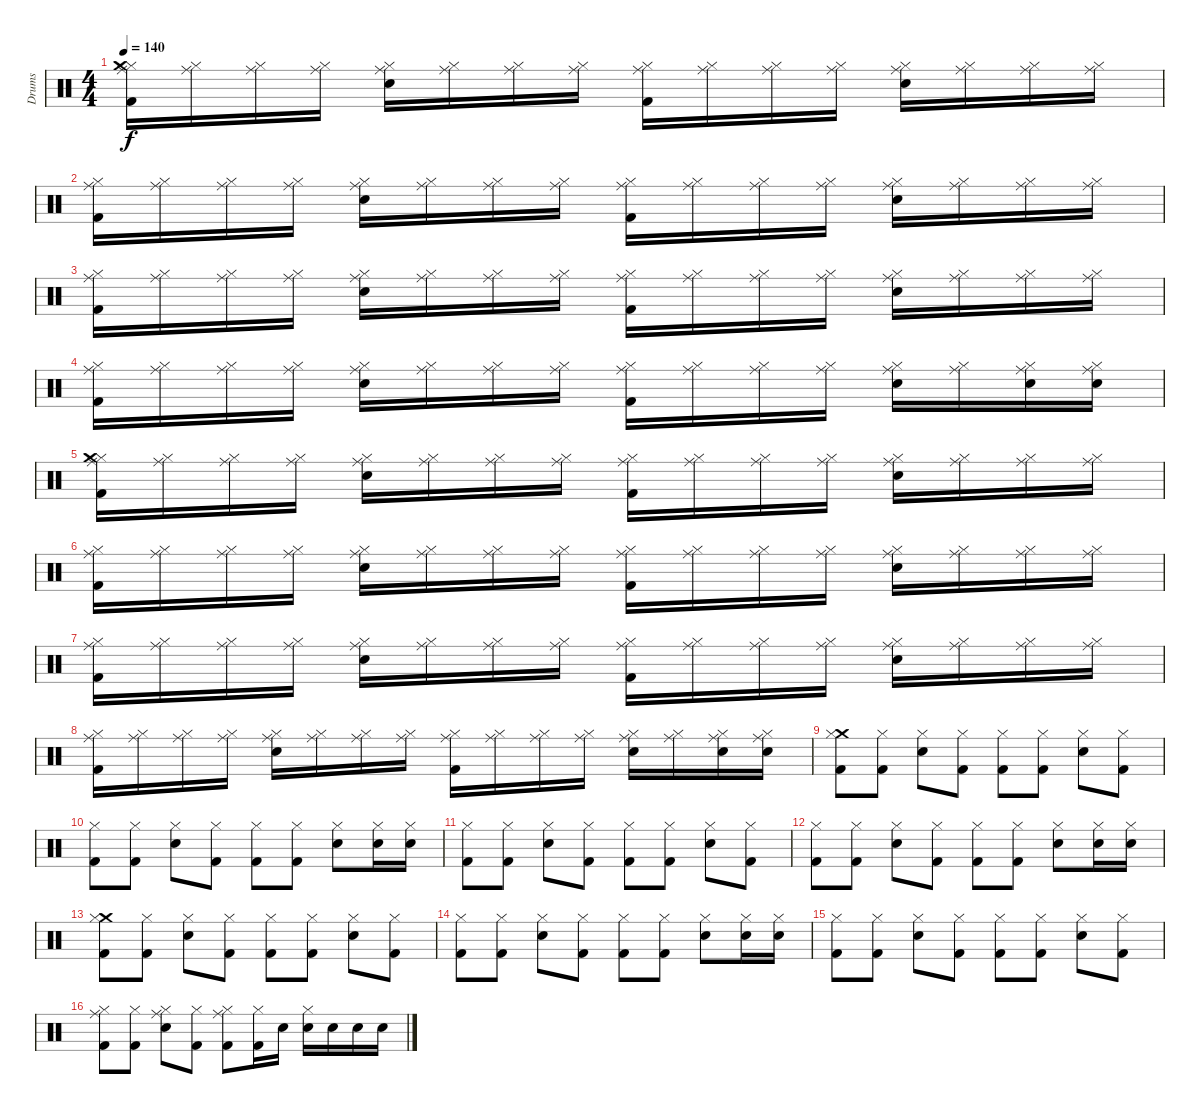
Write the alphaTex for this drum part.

\track ("Drums" "Drums") {instrument percussion}
\staff {score}
\articulation defaults
\ts (4 4)
\tempo 140
\clef neutral
\ks c
("Hi-Hat (closed)" "Crash medium (hit)" "Ride (middle)" "Kick (hit) 2").16{dy f} ("Hi-Hat (closed)" "Ride (middle)").16 ("Hi-Hat (closed)" "Ride (middle)").16 ("Hi-Hat (closed)" "Ride (middle)").16 ("Hi-Hat (closed)" "Ride (middle)" "Snare (hit) 2").16 ("Hi-Hat (closed)" "Ride (middle)").16 ("Hi-Hat (closed)" "Ride (middle)").16 ("Hi-Hat (closed)" "Ride (middle)").16 ("Hi-Hat (closed)" "Ride (middle)" "Kick (hit) 2").16 ("Hi-Hat (closed)" "Ride (middle)").16 ("Hi-Hat (closed)" "Ride (middle)").16 ("Hi-Hat (closed)" "Ride (middle)").16 ("Hi-Hat (closed)" "Ride (middle)" "Snare (hit) 2").16 ("Hi-Hat (closed)" "Ride (middle)").16 ("Hi-Hat (closed)" "Ride (middle)").16 ("Hi-Hat (closed)" "Ride (middle)").16 |
("Hi-Hat (closed)" "Ride (middle)" "Kick (hit) 2").16 ("Hi-Hat (closed)" "Ride (middle)").16 ("Hi-Hat (closed)" "Ride (middle)").16 ("Hi-Hat (closed)" "Ride (middle)").16 ("Hi-Hat (closed)" "Ride (middle)" "Snare (hit) 2").16 ("Hi-Hat (closed)" "Ride (middle)").16 ("Hi-Hat (closed)" "Ride (middle)").16 ("Hi-Hat (closed)" "Ride (middle)").16 ("Hi-Hat (closed)" "Ride (middle)" "Kick (hit) 2").16 ("Hi-Hat (closed)" "Ride (middle)").16 ("Hi-Hat (closed)" "Ride (middle)").16 ("Hi-Hat (closed)" "Ride (middle)").16 ("Hi-Hat (closed)" "Ride (middle)" "Snare (hit) 2").16 ("Hi-Hat (closed)" "Ride (middle)").16 ("Hi-Hat (closed)" "Ride (middle)").16 ("Hi-Hat (closed)" "Ride (middle)").16 |
("Hi-Hat (closed)" "Ride (middle)" "Kick (hit) 2").16 ("Hi-Hat (closed)" "Ride (middle)").16 ("Hi-Hat (closed)" "Ride (middle)").16 ("Hi-Hat (closed)" "Ride (middle)").16 ("Hi-Hat (closed)" "Ride (middle)" "Snare (hit) 2").16 ("Hi-Hat (closed)" "Ride (middle)").16 ("Hi-Hat (closed)" "Ride (middle)").16 ("Hi-Hat (closed)" "Ride (middle)").16 ("Hi-Hat (closed)" "Ride (middle)" "Kick (hit) 2").16 ("Hi-Hat (closed)" "Ride (middle)").16 ("Hi-Hat (closed)" "Ride (middle)").16 ("Hi-Hat (closed)" "Ride (middle)").16 ("Hi-Hat (closed)" "Ride (middle)" "Snare (hit) 2").16 ("Hi-Hat (closed)" "Ride (middle)").16 ("Hi-Hat (closed)" "Ride (middle)").16 ("Hi-Hat (closed)" "Ride (middle)").16 |
("Hi-Hat (closed)" "Ride (middle)" "Kick (hit) 2").16 ("Hi-Hat (closed)" "Ride (middle)").16 ("Hi-Hat (closed)" "Ride (middle)").16 ("Hi-Hat (closed)" "Ride (middle)").16 ("Hi-Hat (closed)" "Ride (middle)" "Snare (hit) 2").16 ("Hi-Hat (closed)" "Ride (middle)").16 ("Hi-Hat (closed)" "Ride (middle)").16 ("Hi-Hat (closed)" "Ride (middle)").16 ("Hi-Hat (closed)" "Ride (middle)" "Kick (hit) 2").16 ("Hi-Hat (closed)" "Ride (middle)").16 ("Hi-Hat (closed)" "Ride (middle)").16 ("Hi-Hat (closed)" "Ride (middle)").16 ("Hi-Hat (closed)" "Ride (middle)" "Snare (hit) 2").16 ("Hi-Hat (closed)" "Ride (middle)").16 ("Hi-Hat (closed)" "Ride (middle)" "Snare (hit) 2").16 ("Hi-Hat (closed)" "Ride (middle)" "Snare (hit) 2").16 |
("Hi-Hat (closed)" "Crash medium (hit)" "Ride (middle)" "Kick (hit) 2").16 ("Hi-Hat (closed)" "Ride (middle)").16 ("Hi-Hat (closed)" "Ride (middle)").16 ("Hi-Hat (closed)" "Ride (middle)").16 ("Hi-Hat (closed)" "Ride (middle)" "Snare (hit) 2").16 ("Hi-Hat (closed)" "Ride (middle)").16 ("Hi-Hat (closed)" "Ride (middle)").16 ("Hi-Hat (closed)" "Ride (middle)").16 ("Hi-Hat (closed)" "Ride (middle)" "Kick (hit) 2").16 ("Hi-Hat (closed)" "Ride (middle)").16 ("Hi-Hat (closed)" "Ride (middle)").16 ("Hi-Hat (closed)" "Ride (middle)").16 ("Hi-Hat (closed)" "Ride (middle)" "Snare (hit) 2").16 ("Hi-Hat (closed)" "Ride (middle)").16 ("Hi-Hat (closed)" "Ride (middle)").16 ("Hi-Hat (closed)" "Ride (middle)").16 |
("Hi-Hat (closed)" "Ride (middle)" "Kick (hit) 2").16 ("Hi-Hat (closed)" "Ride (middle)").16 ("Hi-Hat (closed)" "Ride (middle)").16 ("Hi-Hat (closed)" "Ride (middle)").16 ("Hi-Hat (closed)" "Ride (middle)" "Snare (hit) 2").16 ("Hi-Hat (closed)" "Ride (middle)").16 ("Hi-Hat (closed)" "Ride (middle)").16 ("Hi-Hat (closed)" "Ride (middle)").16 ("Hi-Hat (closed)" "Ride (middle)" "Kick (hit) 2").16 ("Hi-Hat (closed)" "Ride (middle)").16 ("Hi-Hat (closed)" "Ride (middle)").16 ("Hi-Hat (closed)" "Ride (middle)").16 ("Hi-Hat (closed)" "Ride (middle)" "Snare (hit) 2").16 ("Hi-Hat (closed)" "Ride (middle)").16 ("Hi-Hat (closed)" "Ride (middle)").16 ("Hi-Hat (closed)" "Ride (middle)").16 |
("Hi-Hat (closed)" "Ride (middle)" "Kick (hit) 2").16 ("Hi-Hat (closed)" "Ride (middle)").16 ("Hi-Hat (closed)" "Ride (middle)").16 ("Hi-Hat (closed)" "Ride (middle)").16 ("Hi-Hat (closed)" "Ride (middle)" "Snare (hit) 2").16 ("Hi-Hat (closed)" "Ride (middle)").16 ("Hi-Hat (closed)" "Ride (middle)").16 ("Hi-Hat (closed)" "Ride (middle)").16 ("Hi-Hat (closed)" "Ride (middle)" "Kick (hit) 2").16 ("Hi-Hat (closed)" "Ride (middle)").16 ("Hi-Hat (closed)" "Ride (middle)").16 ("Hi-Hat (closed)" "Ride (middle)").16 ("Hi-Hat (closed)" "Ride (middle)" "Snare (hit) 2").16 ("Hi-Hat (closed)" "Ride (middle)").16 ("Hi-Hat (closed)" "Ride (middle)").16 ("Hi-Hat (closed)" "Ride (middle)").16 |
("Hi-Hat (closed)" "Ride (middle)" "Kick (hit) 2").16 ("Hi-Hat (closed)" "Ride (middle)").16 ("Hi-Hat (closed)" "Ride (middle)").16 ("Hi-Hat (closed)" "Ride (middle)").16 ("Hi-Hat (closed)" "Ride (middle)" "Snare (hit) 2").16 ("Hi-Hat (closed)" "Ride (middle)").16 ("Hi-Hat (closed)" "Ride (middle)").16 ("Hi-Hat (closed)" "Ride (middle)").16 ("Hi-Hat (closed)" "Ride (middle)" "Kick (hit) 2").16 ("Hi-Hat (closed)" "Ride (middle)").16 ("Hi-Hat (closed)" "Ride (middle)").16 ("Hi-Hat (closed)" "Ride (middle)").16 ("Hi-Hat (closed)" "Ride (middle)" "Snare (hit) 2").16 ("Hi-Hat (closed)" "Ride (middle)").16 ("Hi-Hat (closed)" "Ride (middle)" "Snare (hit) 2").16 ("Hi-Hat (closed)" "Ride (middle)" "Snare (hit) 2").16 |
("Crash medium (hit)" "Hi-Hat (closed)" "Kick (hit) 2").8 ("Hi-Hat (closed)" "Kick (hit) 2").8 ("Hi-Hat (closed)" "Snare (hit) 2").8 ("Hi-Hat (closed)" "Kick (hit) 2").8 ("Hi-Hat (closed)" "Kick (hit) 2").8 ("Hi-Hat (closed)" "Kick (hit) 2").8 ("Hi-Hat (closed)" "Snare (hit) 2").8 ("Hi-Hat (closed)" "Kick (hit) 2").8 |
("Hi-Hat (closed)" "Kick (hit) 2").8 ("Hi-Hat (closed)" "Kick (hit) 2").8 ("Hi-Hat (closed)" "Snare (hit) 2").8 ("Hi-Hat (closed)" "Kick (hit) 2").8 ("Hi-Hat (closed)" "Kick (hit) 2").8 ("Hi-Hat (closed)" "Kick (hit) 2").8 ("Hi-Hat (closed)" "Snare (hit) 2").8 ("Hi-Hat (closed)" "Snare (hit) 2").16 ("Hi-Hat (closed)" "Snare (hit) 2").16 |
("Hi-Hat (closed)" "Kick (hit) 2").8 ("Hi-Hat (closed)" "Kick (hit) 2").8 ("Hi-Hat (closed)" "Snare (hit) 2").8 ("Hi-Hat (closed)" "Kick (hit) 2").8 ("Hi-Hat (closed)" "Kick (hit) 2").8 ("Hi-Hat (closed)" "Kick (hit) 2").8 ("Hi-Hat (closed)" "Snare (hit) 2").8 ("Hi-Hat (closed)" "Kick (hit) 2").8 |
("Hi-Hat (closed)" "Kick (hit) 2").8 ("Hi-Hat (closed)" "Kick (hit) 2").8 ("Hi-Hat (closed)" "Snare (hit) 2").8 ("Hi-Hat (closed)" "Kick (hit) 2").8 ("Hi-Hat (closed)" "Kick (hit) 2").8 ("Hi-Hat (closed)" "Kick (hit) 2").8 ("Hi-Hat (closed)" "Snare (hit) 2").8 ("Hi-Hat (closed)" "Snare (hit) 2").16 ("Hi-Hat (closed)" "Snare (hit) 2").16 |
("Crash medium (hit)" "Hi-Hat (closed)" "Kick (hit) 2").8 ("Hi-Hat (closed)" "Kick (hit) 2").8 ("Hi-Hat (closed)" "Snare (hit) 2").8 ("Hi-Hat (closed)" "Kick (hit) 2").8 ("Hi-Hat (closed)" "Kick (hit) 2").8 ("Hi-Hat (closed)" "Kick (hit) 2").8 ("Hi-Hat (closed)" "Snare (hit) 2").8 ("Hi-Hat (closed)" "Kick (hit) 2").8 |
("Hi-Hat (closed)" "Kick (hit) 2").8 ("Hi-Hat (closed)" "Kick (hit) 2").8 ("Hi-Hat (closed)" "Snare (hit) 2").8 ("Hi-Hat (closed)" "Kick (hit) 2").8 ("Hi-Hat (closed)" "Kick (hit) 2").8 ("Hi-Hat (closed)" "Kick (hit) 2").8 ("Hi-Hat (closed)" "Snare (hit) 2").8 ("Hi-Hat (closed)" "Snare (hit) 2").16 ("Hi-Hat (closed)" "Snare (hit) 2").16 |
("Hi-Hat (closed)" "Kick (hit) 2").8 ("Hi-Hat (closed)" "Kick (hit) 2").8 ("Hi-Hat (closed)" "Snare (hit) 2").8 ("Hi-Hat (closed)" "Kick (hit) 2").8 ("Hi-Hat (closed)" "Kick (hit) 2").8 ("Hi-Hat (closed)" "Kick (hit) 2").8 ("Hi-Hat (closed)" "Snare (hit) 2").8 ("Hi-Hat (closed)" "Kick (hit) 2").8 |
("Ride (middle)" "Hi-Hat (closed)" "Kick (hit) 2").8 ("Hi-Hat (closed)" "Kick (hit) 2").8 ("Ride (middle)" "Hi-Hat (closed)" "Snare (hit) 2").8 ("Hi-Hat (closed)" "Kick (hit) 2").8 ("Ride (middle)" "Hi-Hat (closed)" "Kick (hit) 2").8 ("Hi-Hat (closed)" "Kick (hit) 2").16 "Snare (hit) 2".16 ("Hi-Hat (closed)" "Snare (hit) 2").16 "Snare (hit) 2".16 "Snare (hit) 2".16 "Snare (hit) 2".16
